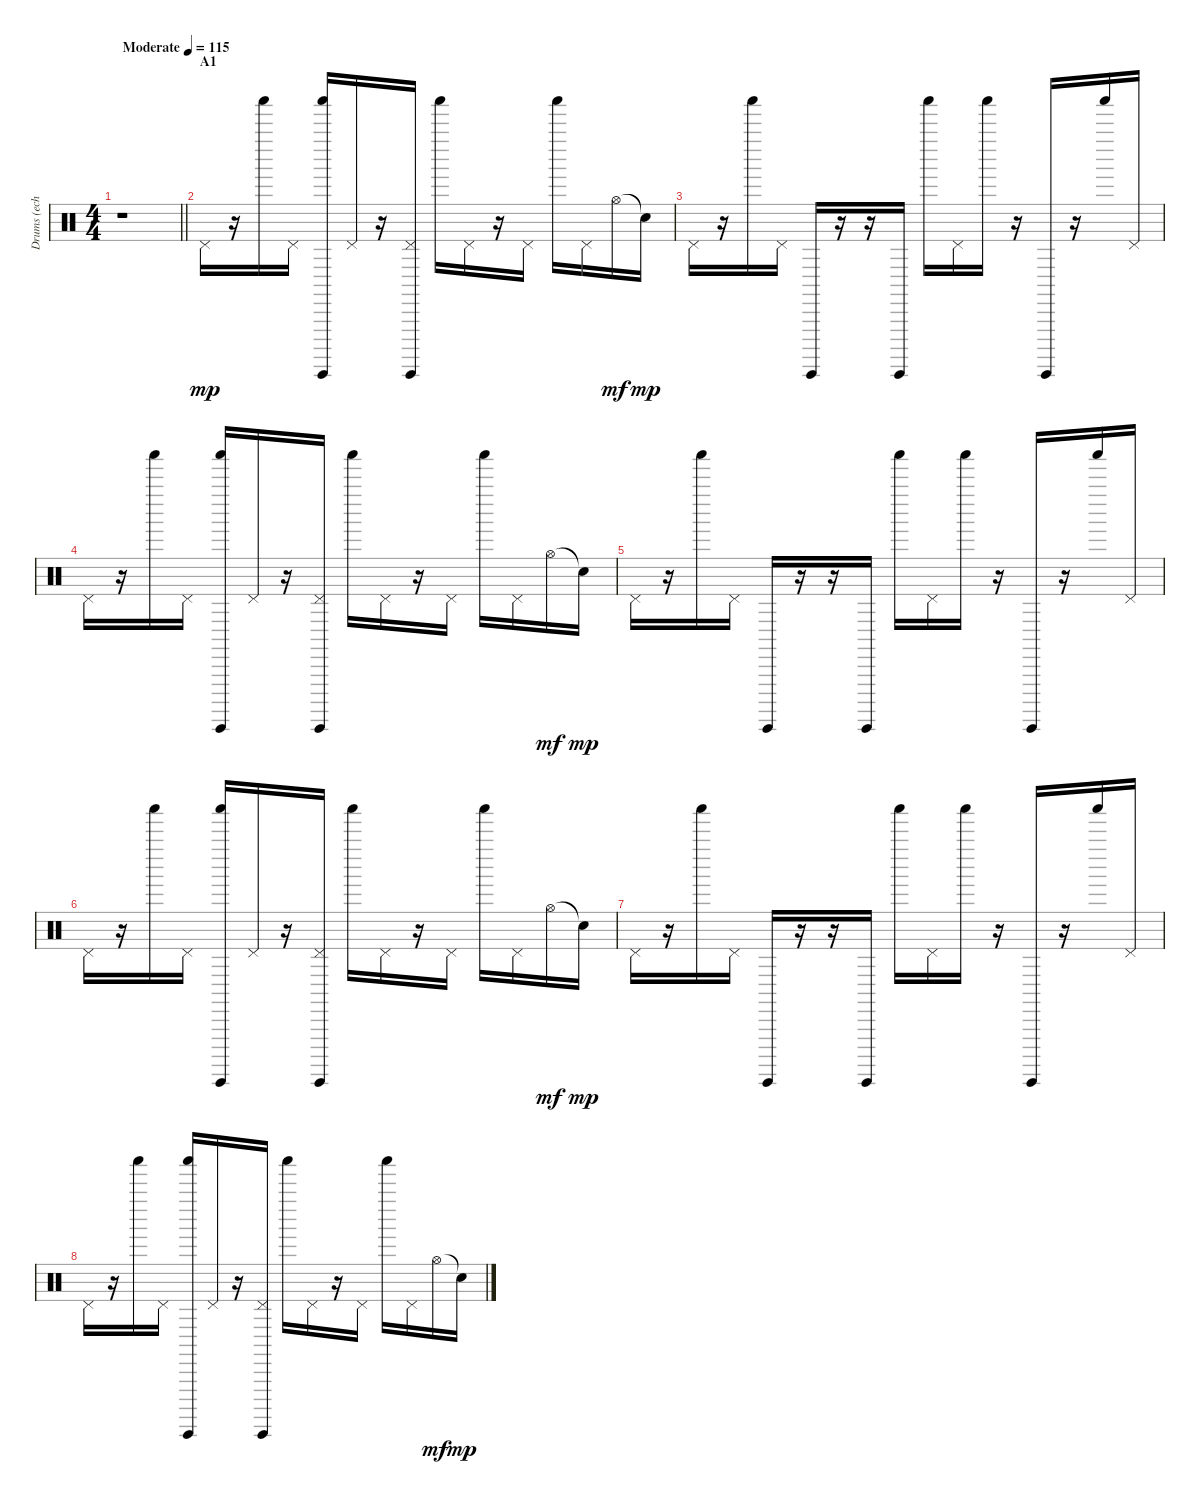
\track ("Drums (echo)" "Drums (ech") {instrument percussion}
\staff {score}
\articulation defaults
\ts (4 4)
\tempo (115 "Moderate")
\clef neutral
\barLineRight lightlight
\ks c
r.1{dy mp} |
\section ("" "A1")
"Pedal Hi-Hat (hit)".16 r.16 "Shaker (hit)".16 "Pedal Hi-Hat (hit)".16 ("Shaker (hit)" "Guiro (hit)").16 "Pedal Hi-Hat (hit)".16 r.16 ("Pedal Hi-Hat (hit)" "Guiro (hit)").16 "Shaker (hit)".16 "Pedal Hi-Hat (hit)".16 r.16 "Pedal Hi-Hat (hit)".16 "Shaker (hit)".16 "Pedal Hi-Hat (hit)".16 "Hi-Hat (open)".16{dy mf balance 11} "Snare (hit)"{t}.16{dy mp} |
"Pedal Hi-Hat (hit)".16{balance 6} r.16 "Shaker (hit)".16 "Pedal Hi-Hat (hit)".16 "Guiro (hit)".16 r.16 r.16 "Guiro (hit)".16 "Shaker (hit)".16 "Pedal Hi-Hat (hit)".16 "Shaker (hit)".16 r.16 "Guiro (hit)".16 r.16 "Shaker (hit)".16 "Pedal Hi-Hat (hit)".16 |
"Pedal Hi-Hat (hit)".16 r.16 "Shaker (hit)".16 "Pedal Hi-Hat (hit)".16 ("Shaker (hit)" "Guiro (hit)").16 "Pedal Hi-Hat (hit)".16 r.16 ("Pedal Hi-Hat (hit)" "Guiro (hit)").16 "Shaker (hit)".16 "Pedal Hi-Hat (hit)".16 r.16 "Pedal Hi-Hat (hit)".16 "Shaker (hit)".16 "Pedal Hi-Hat (hit)".16 "Hi-Hat (open)".16{dy mf balance 11} "Snare (hit)"{t}.16{dy mp} |
"Pedal Hi-Hat (hit)".16{balance 6} r.16 "Shaker (hit)".16 "Pedal Hi-Hat (hit)".16 "Guiro (hit)".16 r.16 r.16 "Guiro (hit)".16 "Shaker (hit)".16 "Pedal Hi-Hat (hit)".16 "Shaker (hit)".16 r.16 "Guiro (hit)".16 r.16 "Shaker (hit)".16 "Pedal Hi-Hat (hit)".16 |
"Pedal Hi-Hat (hit)".16 r.16 "Shaker (hit)".16 "Pedal Hi-Hat (hit)".16 ("Shaker (hit)" "Guiro (hit)").16 "Pedal Hi-Hat (hit)".16 r.16 ("Pedal Hi-Hat (hit)" "Guiro (hit)").16 "Shaker (hit)".16 "Pedal Hi-Hat (hit)".16 r.16 "Pedal Hi-Hat (hit)".16 "Shaker (hit)".16 "Pedal Hi-Hat (hit)".16 "Hi-Hat (open)".16{dy mf balance 11} "Snare (hit)"{t}.16{dy mp} |
"Pedal Hi-Hat (hit)".16{balance 6} r.16 "Shaker (hit)".16 "Pedal Hi-Hat (hit)".16 "Guiro (hit)".16 r.16 r.16 "Guiro (hit)".16 "Shaker (hit)".16 "Pedal Hi-Hat (hit)".16 "Shaker (hit)".16 r.16 "Guiro (hit)".16 r.16 "Shaker (hit)".16 "Pedal Hi-Hat (hit)".16 |
"Pedal Hi-Hat (hit)".16 r.16 "Shaker (hit)".16 "Pedal Hi-Hat (hit)".16 ("Shaker (hit)" "Guiro (hit)").16 "Pedal Hi-Hat (hit)".16 r.16 ("Pedal Hi-Hat (hit)" "Guiro (hit)").16 "Shaker (hit)".16 "Pedal Hi-Hat (hit)".16 r.16 "Pedal Hi-Hat (hit)".16 "Shaker (hit)".16 "Pedal Hi-Hat (hit)".16 "Hi-Hat (open)".16{dy mf balance 11} "Snare (hit)"{t}.16{dy mp}
